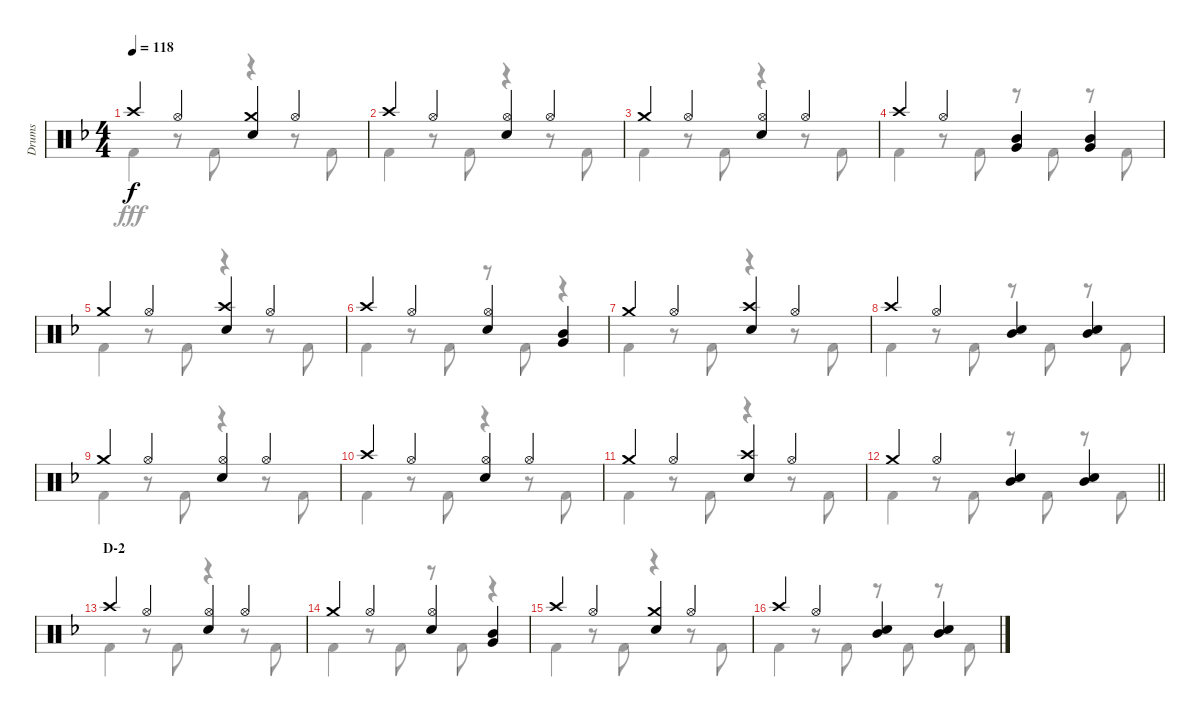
\track ("Drums" "Drums") {instrument percussion}
\staff {score}
\articulation defaults
\voice
\ts (4 4)
\tempo 118
\clef neutral
\ks f "Crash high (hit)".4{dy f} "Hi-Hat (open)".4
("Crash medium (hit)" "Snare (hit) 2").4 "Hi-Hat (open)".4 |
"Crash high (hit)".4 "Hi-Hat (open)".4 ("Hi-Hat (open)" "Snare (hit) 2").4 "Hi-Hat (open)".4 |
"Crash medium (hit)".4 "Hi-Hat (open)".4 ("Hi-Hat (open)" "Snare (hit) 2").4 "Hi-Hat (open)".4 |
"Crash high (hit)".4 "Hi-Hat (open)".4 ("Mid Tom (hit)" "Very Low Tom (hit)").4 ("Mid Tom (hit)" "Very Low Tom (hit)").4 |
"Crash medium (hit)".4 "Hi-Hat (open)".4 ("Crash high (hit)" "Snare (hit) 2").4 "Hi-Hat (open)".4 |
"Crash high (hit)".4 "Hi-Hat (open)".4 ("Hi-Hat (open)" "Snare (hit) 2").4 ("Mid Tom (hit)" "Very Low Tom (hit)").4 |
"Crash medium (hit)".4 "Hi-Hat (open)".4 ("Crash high (hit)" "Snare (hit) 2").4 "Hi-Hat (open)".4 |
"Crash high (hit)".4 "Hi-Hat (open)".4 ("Mid Tom (hit)" "Snare (hit) 2").4 ("Mid Tom (hit)" "Snare (hit) 2").4 |
"Crash medium (hit)".4 "Hi-Hat (open)".4 ("Hi-Hat (open)" "Snare (hit) 2").4 "Hi-Hat (open)".4 |
"Crash high (hit)".4 "Hi-Hat (open)".4 ("Hi-Hat (open)" "Snare (hit) 2").4 "Hi-Hat (open)".4 |
"Crash medium (hit)".4 "Hi-Hat (open)".4 ("Crash high (hit)" "Snare (hit) 2").4 "Hi-Hat (open)".4 |
\barLineRight lightlight "Crash medium (hit)".4 "Hi-Hat (open)".4
("Mid Tom (hit)" "Snare (hit) 2").4 ("Mid Tom (hit)" "Snare (hit) 2").4 |
\section ("" "D-2")
"Crash high (hit)".4 "Hi-Hat (open)".4 ("Hi-Hat (open)" "Snare (hit) 2").4 "Hi-Hat (open)".4 |
"Crash medium (hit)".4 "Hi-Hat (open)".4 ("Hi-Hat (open)" "Snare (hit) 2").4 ("Mid Tom (hit)" "Very Low Tom (hit)").4 |
"Crash high (hit)".4 "Hi-Hat (open)".4 ("Crash medium (hit)" "Snare (hit) 2").4 "Hi-Hat (open)".4 |
"Crash high (hit)".4 "Hi-Hat (open)".4 ("Mid Tom (hit)" "Snare (hit) 2").4 ("Mid Tom (hit)" "Snare (hit) 2").4
\voice
\clef neutral
\ottava regular
\simile none
\ks f "Kick (hit) 2".4{dy fff}
r.8 "Kick (hit) 2".8 r.4 r.8 "Kick (hit) 2".8 |
"Kick (hit) 2".4 r.8 "Kick (hit) 2".8 r.4 r.8 "Kick (hit) 2".8 |
"Kick (hit) 2".4 r.8 "Kick (hit) 2".8 r.4 r.8 "Kick (hit) 2".8 |
"Kick (hit) 2".4 r.8 "Kick (hit) 2".8 r.8 "Kick (hit) 2".8 r.8 "Kick (hit) 2".8 |
"Kick (hit) 2".4 r.8 "Kick (hit) 2".8 r.4 r.8 "Kick (hit) 2".8 |
"Kick (hit) 2".4 r.8 "Kick (hit) 2".8 r.8 "Kick (hit) 2".8 r.4 |
"Kick (hit) 2".4 r.8 "Kick (hit) 2".8 r.4 r.8 "Kick (hit) 2".8 |
"Kick (hit) 2".4 r.8 "Kick (hit) 2".8 r.8 "Kick (hit) 2".8 r.8 "Kick (hit) 2".8 |
"Kick (hit) 2".4 r.8 "Kick (hit) 2".8 r.4 r.8 "Kick (hit) 2".8 |
"Kick (hit) 2".4 r.8 "Kick (hit) 2".8 r.4 r.8 "Kick (hit) 2".8 |
"Kick (hit) 2".4 r.8 "Kick (hit) 2".8 r.4 r.8 "Kick (hit) 2".8 |
\barLineRight lightlight "Kick (hit) 2".4
r.8 "Kick (hit) 2".8 r.8 "Kick (hit) 2".8 r.8 "Kick (hit) 2".8 |
"Kick (hit) 2".4 r.8 "Kick (hit) 2".8 r.4 r.8 "Kick (hit) 2".8 |
"Kick (hit) 2".4 r.8 "Kick (hit) 2".8 r.8 "Kick (hit) 2".8 r.4 |
"Kick (hit) 2".4 r.8 "Kick (hit) 2".8 r.4 r.8 "Kick (hit) 2".8 |
"Kick (hit) 2".4 r.8 "Kick (hit) 2".8 r.8 "Kick (hit) 2".8 r.8 "Kick (hit) 2".8
